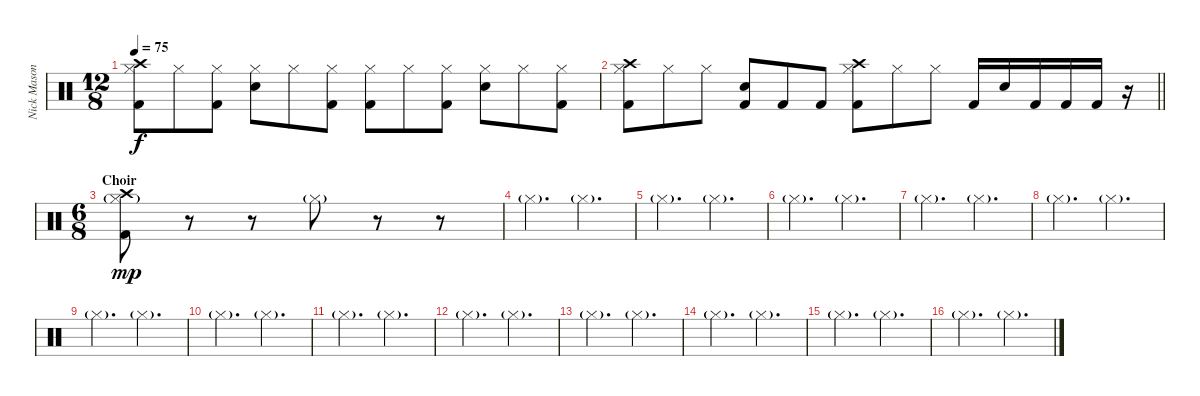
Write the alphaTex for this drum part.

\track ("Nick Mason (Drums)" "Nick Mason") {instrument percussion}
\staff {score}
\articulation defaults
\ts (12 8)
\tempo 75
\clef neutral
\ks c
("Crash high (hit)" "Hi-Hat (closed)" "Kick (hit) 2").8{dy f} "Hi-Hat (closed)".8 ("Hi-Hat (closed)" "Kick (hit) 2").8 ("Hi-Hat (closed)" "Snare (hit) 2").8 "Hi-Hat (closed)".8 ("Hi-Hat (closed)" "Kick (hit) 2").8 ("Hi-Hat (closed)" "Kick (hit) 2").8 "Hi-Hat (closed)".8 ("Hi-Hat (closed)" "Kick (hit) 2").8 ("Hi-Hat (closed)" "Snare (hit) 2").8 "Hi-Hat (closed)".8 ("Hi-Hat (closed)" "Kick (hit) 2").8 |
\barLineRight lightlight
("Crash high (hit)" "Hi-Hat (closed)" "Kick (hit) 2").8 "Hi-Hat (closed)".8 "Hi-Hat (closed)".8 ("Snare (hit) 2" "Kick (hit) 2").8 "Kick (hit) 2".8 "Kick (hit) 2".8 ("Crash high (hit)" "Hi-Hat (closed)" "Kick (hit) 2").8 "Hi-Hat (closed)".8 "Hi-Hat (closed)".8 "Kick (hit) 2".16 "Snare (hit) 2".16 "Kick (hit) 2".16 "Kick (hit) 2".16 "Kick (hit) 2".16 r.16 |
\ts (6 8)
\section ("" "Choir")
("Crash high (hit)" "Kick (hit) 2" "Hi-Hat (closed)"{g}).8{dy mp} r.8 r.8 "Hi-Hat (closed)"{g}.8 r.8 r.8 |
"Hi-Hat (closed)"{g}.4{d} "Hi-Hat (closed)"{g}.4{d} |
"Hi-Hat (closed)"{g}.4{d} "Hi-Hat (closed)"{g}.4{d} |
"Hi-Hat (closed)"{g}.4{d} "Hi-Hat (closed)"{g}.4{d} |
"Hi-Hat (closed)"{g}.4{d} "Hi-Hat (closed)"{g}.4{d} |
"Hi-Hat (closed)"{g}.4{d} "Hi-Hat (closed)"{g}.4{d} |
"Hi-Hat (closed)"{g}.4{d} "Hi-Hat (closed)"{g}.4{d} |
"Hi-Hat (closed)"{g}.4{d} "Hi-Hat (closed)"{g}.4{d} |
"Hi-Hat (closed)"{g}.4{d} "Hi-Hat (closed)"{g}.4{d} |
"Hi-Hat (closed)"{g}.4{d} "Hi-Hat (closed)"{g}.4{d} |
"Hi-Hat (closed)"{g}.4{d} "Hi-Hat (closed)"{g}.4{d} |
"Hi-Hat (closed)"{g}.4{d} "Hi-Hat (closed)"{g}.4{d} |
"Hi-Hat (closed)"{g}.4{d} "Hi-Hat (closed)"{g}.4{d} |
"Hi-Hat (closed)"{g}.4{d} "Hi-Hat (closed)"{g}.4{d}
